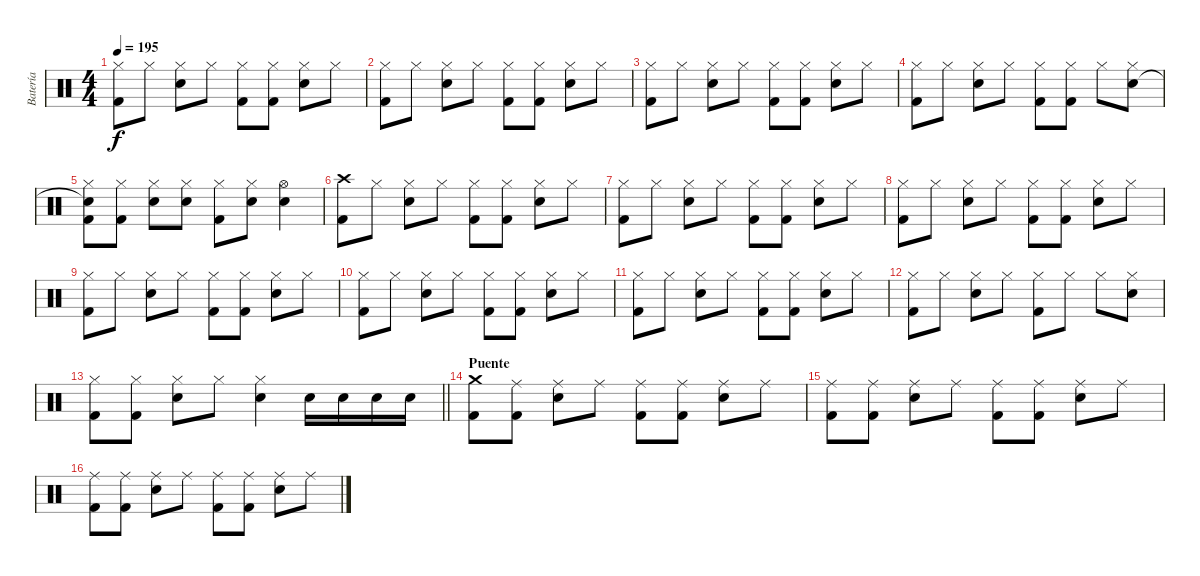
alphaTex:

\track ("Batería" "Batería") {instrument percussion}
\staff {score}
\articulation defaults
\ts (4 4)
\tempo 195
\clef neutral
\ks c
("Hi-Hat (closed)" "Kick (hit) 2").8{dy f} "Hi-Hat (closed)".8 ("Hi-Hat (closed)" "Snare (hit) 2").8 "Hi-Hat (closed)".8 ("Hi-Hat (closed)" "Kick (hit) 2").8 ("Hi-Hat (closed)" "Kick (hit) 2").8 ("Hi-Hat (closed)" "Snare (hit) 2").8 "Hi-Hat (closed)".8 |
("Hi-Hat (closed)" "Kick (hit) 2").8 "Hi-Hat (closed)".8 ("Hi-Hat (closed)" "Snare (hit) 2").8 "Hi-Hat (closed)".8 ("Hi-Hat (closed)" "Kick (hit) 2").8 ("Hi-Hat (closed)" "Kick (hit) 2").8 ("Hi-Hat (closed)" "Snare (hit) 2").8 "Hi-Hat (closed)".8 |
("Hi-Hat (closed)" "Kick (hit) 2").8 "Hi-Hat (closed)".8 ("Hi-Hat (closed)" "Snare (hit) 2").8 "Hi-Hat (closed)".8 ("Hi-Hat (closed)" "Kick (hit) 2").8 ("Hi-Hat (closed)" "Kick (hit) 2").8 ("Hi-Hat (closed)" "Snare (hit) 2").8 "Hi-Hat (closed)".8 |
("Hi-Hat (closed)" "Kick (hit) 2").8 "Hi-Hat (closed)".8 ("Hi-Hat (closed)" "Snare (hit) 2").8 "Hi-Hat (closed)".8 ("Hi-Hat (closed)" "Kick (hit) 2").8 ("Hi-Hat (closed)" "Kick (hit) 2").8 "Hi-Hat (closed)".8 ("Hi-Hat (closed)" "Snare (hit) 2").8 |
("Hi-Hat (closed)" "Snare (hit)"{t} "Kick (hit) 2").8 ("Hi-Hat (closed)" "Kick (hit) 2").8 ("Hi-Hat (closed)" "Snare (hit) 2").8 ("Hi-Hat (closed)" "Snare (hit) 2").8 ("Hi-Hat (closed)" "Kick (hit) 2").8 ("Hi-Hat (closed)" "Snare (hit) 2").8 ("Hi-Hat (open)" "Snare (hit) 2").4 |
("Crash high (hit)" "Kick (hit) 2").8 "Hi-Hat (closed)".8 ("Hi-Hat (closed)" "Snare (hit) 2").8 "Hi-Hat (closed)".8 ("Hi-Hat (closed)" "Kick (hit) 2").8 ("Hi-Hat (closed)" "Kick (hit) 2").8 ("Hi-Hat (closed)" "Snare (hit) 2").8 "Hi-Hat (closed)".8 |
("Hi-Hat (closed)" "Kick (hit) 2").8 "Hi-Hat (closed)".8 ("Hi-Hat (closed)" "Snare (hit) 2").8 "Hi-Hat (closed)".8 ("Hi-Hat (closed)" "Kick (hit) 2").8 ("Hi-Hat (closed)" "Kick (hit) 2").8 ("Hi-Hat (closed)" "Snare (hit) 2").8 "Hi-Hat (closed)".8 |
("Hi-Hat (closed)" "Kick (hit) 2").8 "Hi-Hat (closed)".8 ("Hi-Hat (closed)" "Snare (hit) 2").8 "Hi-Hat (closed)".8 ("Hi-Hat (closed)" "Kick (hit) 2").8 ("Hi-Hat (closed)" "Kick (hit) 2").8 ("Hi-Hat (closed)" "Snare (hit) 2").8 "Hi-Hat (closed)".8 |
("Hi-Hat (closed)" "Kick (hit) 2").8 "Hi-Hat (closed)".8 ("Hi-Hat (closed)" "Snare (hit) 2").8 "Hi-Hat (closed)".8 ("Hi-Hat (closed)" "Kick (hit) 2").8 ("Hi-Hat (closed)" "Kick (hit) 2").8 ("Hi-Hat (closed)" "Snare (hit) 2").8 "Hi-Hat (closed)".8 |
("Hi-Hat (closed)" "Kick (hit) 2").8 "Hi-Hat (closed)".8 ("Hi-Hat (closed)" "Snare (hit) 2").8 "Hi-Hat (closed)".8 ("Hi-Hat (closed)" "Kick (hit) 2").8 ("Hi-Hat (closed)" "Kick (hit) 2").8 ("Hi-Hat (closed)" "Snare (hit) 2").8 "Hi-Hat (closed)".8 |
("Hi-Hat (closed)" "Kick (hit) 2").8 "Hi-Hat (closed)".8 ("Hi-Hat (closed)" "Snare (hit) 2").8 "Hi-Hat (closed)".8 ("Hi-Hat (closed)" "Kick (hit) 2").8 ("Hi-Hat (closed)" "Kick (hit) 2").8 ("Hi-Hat (closed)" "Snare (hit) 2").8 "Hi-Hat (closed)".8 |
("Hi-Hat (closed)" "Kick (hit) 2").8 "Hi-Hat (closed)".8 ("Hi-Hat (closed)" "Snare (hit) 2").8 "Hi-Hat (closed)".8 ("Hi-Hat (closed)" "Kick (hit) 2").8 "Hi-Hat (closed)".8 "Hi-Hat (closed)".8 ("Hi-Hat (closed)" "Snare (hit) 2").8 |
\barLineRight lightlight
("Hi-Hat (closed)" "Kick (hit) 2").8 ("Hi-Hat (closed)" "Kick (hit) 2").8 ("Hi-Hat (closed)" "Snare (hit) 2").8 "Hi-Hat (closed)".8 ("Hi-Hat (closed)" "Snare (hit) 2").4 "Snare (hit) 2".16 "Snare (hit) 2".16 "Snare (hit) 2".16 "Snare (hit) 2".16 |
\section ("" "Puente")
("Crash medium (hit)" "Kick (hit) 2").8 ("Ride (middle)" "Kick (hit) 2").8 ("Ride (middle)" "Snare (hit) 2").8 "Ride (middle)".8 ("Ride (middle)" "Kick (hit) 2").8 ("Ride (middle)" "Kick (hit) 2").8 ("Ride (middle)" "Snare (hit) 2").8 "Ride (middle)".8 |
("Ride (middle)" "Kick (hit) 2").8 ("Ride (middle)" "Kick (hit) 2").8 ("Ride (middle)" "Snare (hit) 2").8 "Ride (middle)".8 ("Ride (middle)" "Kick (hit) 2").8 ("Ride (middle)" "Kick (hit) 2").8 ("Ride (middle)" "Snare (hit) 2").8 "Ride (middle)".8 |
("Ride (middle)" "Kick (hit) 2").8 ("Ride (middle)" "Kick (hit) 2").8 ("Ride (middle)" "Snare (hit) 2").8 "Ride (middle)".8 ("Ride (middle)" "Kick (hit) 2").8 ("Ride (middle)" "Kick (hit) 2").8 ("Ride (middle)" "Snare (hit) 2").8 "Ride (middle)".8
